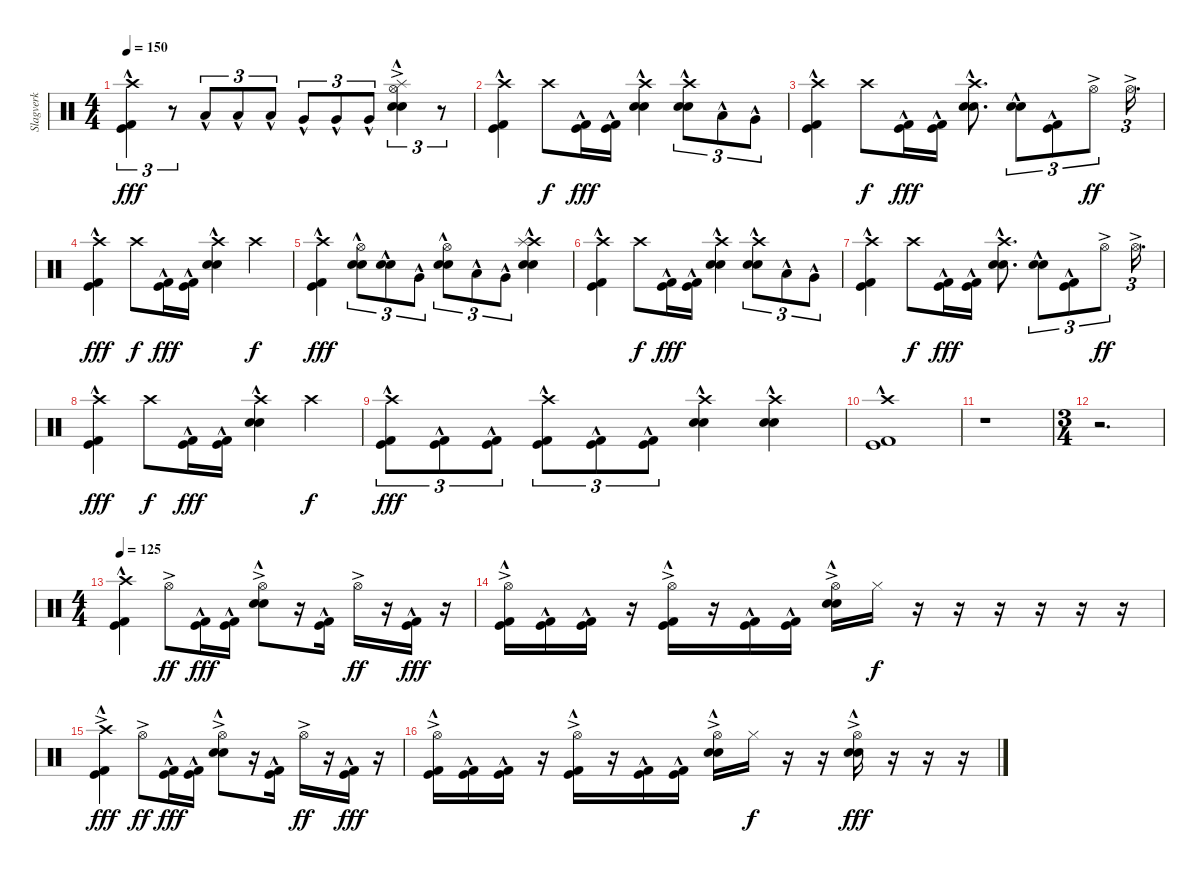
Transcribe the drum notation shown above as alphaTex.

\track ("Slagverk" "Slagverk") {instrument percussion}
\staff {score}
\articulation defaults
\ts (4 4)
\tempo 150
\clef neutral
\ks c
("Crash high (hit)" "Kick (hit)"{hac} "Kick (hit) 2"{hac}).4{tu (3 2) dy fff} r.8{tu (3 2)} "Low Tom (hit)"{hac}.8{tu (3 2)} "Low Tom (hit)"{hac}.8{tu (3 2)} "Low Tom (hit)"{hac}.8{tu (3 2)} "Very Low Tom (hit)"{hac}.8{tu (3 2)} "Very Low Tom (hit)"{hac}.8{tu (3 2)} "Very Low Tom (hit)"{hac}.8{tu (3 2)} ("Hi-Hat (open)"{ac} "Splash (hit)"{ac} "Electric Snare (hit)"{hac} "Snare (hit) 2").4{tu (3 2)} r.8{tu (3 2)} |
("Crash high (hit)" "Kick (hit)"{hac} "Kick (hit) 2"{hac}).4 "Crash high (hit)".8{dy f} ("Kick (hit)"{hac} "Kick (hit) 2"{hac}).16{dy fff} ("Kick (hit)"{hac} "Kick (hit) 2"{hac}).16 ("Crash high (hit)" "Electric Snare (hit)"{hac} "Snare (hit) 2").4 ("Crash high (hit)" "Electric Snare (hit)"{hac} "Snare (hit) 2").8{tu (3 2)} "Low Tom (hit)"{hac}.8{tu (3 2)} "Very Low Tom (hit)"{hac}.8{tu (3 2)} |
("Crash high (hit)" "Kick (hit)"{hac} "Kick (hit) 2"{hac}).4 "Crash high (hit)".8{dy f} ("Kick (hit)"{hac} "Kick (hit) 2"{hac}).16{dy fff} ("Kick (hit)"{hac} "Kick (hit) 2"{hac}).16 ("Crash high (hit)" "Electric Snare (hit)"{hac} "Snare (hit) 2").8{d} ("Electric Snare (hit)"{hac} "Snare (hit) 2").8{tu (3 2)} ("Kick (hit)"{hac} "Kick (hit) 2"{hac}).8{tu (3 2)} "Hi-Hat (open)"{ac}.8{tu (3 2) dy ff} "Hi-Hat (open)"{ac}.16{d tu (3 2)} |
("Crash high (hit)" "Kick (hit)"{hac} "Kick (hit) 2"{hac}).4{dy fff} "Crash high (hit)".8{dy f} ("Kick (hit)"{hac} "Kick (hit) 2"{hac}).16{dy fff} ("Kick (hit)"{hac} "Kick (hit) 2"{hac}).16 ("Crash high (hit)" "Electric Snare (hit)"{hac} "Snare (hit) 2").4 "Crash high (hit)".4{dy f} |
("Crash high (hit)" "Kick (hit)"{hac} "Kick (hit) 2"{hac}).4{dy fff} ("Hi-Hat (open)" "Electric Snare (hit)"{hac} "Snare (hit) 2").8{tu (3 2)} ("Electric Snare (hit)"{hac} "Snare (hit) 2").8{tu (3 2)} "Very Low Tom (hit)"{hac}.8{tu (3 2)} ("Hi-Hat (open)" "Electric Snare (hit)"{hac} "Snare (hit) 2").8{tu (3 2)} "Low Tom (hit)"{hac}.8{tu (3 2)} "Very Low Tom (hit)"{hac}.8{tu (3 2)} ("Crash high (hit)" "Splash (hit)"{hac} "Electric Snare (hit)"{hac} "Snare (hit) 2").4 |
("Crash high (hit)" "Kick (hit)"{hac} "Kick (hit) 2"{hac}).4 "Crash high (hit)".8{dy f} ("Kick (hit)"{hac} "Kick (hit) 2"{hac}).16{dy fff} ("Kick (hit)"{hac} "Kick (hit) 2"{hac}).16 ("Crash high (hit)" "Electric Snare (hit)"{hac} "Snare (hit) 2").4 ("Crash high (hit)" "Electric Snare (hit)"{hac} "Snare (hit) 2").8{tu (3 2)} "Low Tom (hit)"{hac}.8{tu (3 2)} "Very Low Tom (hit)"{hac}.8{tu (3 2)} |
("Crash high (hit)" "Kick (hit)"{hac} "Kick (hit) 2"{hac}).4 "Crash high (hit)".8{dy f} ("Kick (hit)"{hac} "Kick (hit) 2"{hac}).16{dy fff} ("Kick (hit)"{hac} "Kick (hit) 2"{hac}).16 ("Crash high (hit)" "Electric Snare (hit)"{hac} "Snare (hit) 2").8{d} ("Electric Snare (hit)"{hac} "Snare (hit) 2").8{tu (3 2)} ("Kick (hit)"{hac} "Kick (hit) 2"{hac}).8{tu (3 2)} "Hi-Hat (open)"{ac}.8{tu (3 2) dy ff} "Hi-Hat (open)"{ac}.16{d tu (3 2)} |
("Crash high (hit)" "Kick (hit)"{hac} "Kick (hit) 2"{hac}).4{dy fff} "Crash high (hit)".8{dy f} ("Kick (hit)"{hac} "Kick (hit) 2"{hac}).16{dy fff} ("Kick (hit)"{hac} "Kick (hit) 2"{hac}).16 ("Crash high (hit)" "Electric Snare (hit)"{hac} "Snare (hit) 2").4 "Crash high (hit)".4{dy f} |
("Crash high (hit)" "Kick (hit)"{hac} "Kick (hit) 2"{hac}).8{tu (3 2) dy fff} ("Kick (hit)"{hac} "Kick (hit) 2"{hac}).8{tu (3 2)} ("Kick (hit)"{hac} "Kick (hit) 2"{hac}).8{tu (3 2)} ("Crash high (hit)" "Kick (hit)"{hac} "Kick (hit) 2"{hac}).8{tu (3 2)} ("Kick (hit)"{hac} "Kick (hit) 2"{hac}).8{tu (3 2)} ("Kick (hit)"{hac} "Kick (hit) 2"{hac}).8{tu (3 2)} ("Crash high (hit)" "Electric Snare (hit)"{hac} "Snare (hit) 2").4 ("Crash high (hit)" "Electric Snare (hit)"{hac} "Snare (hit) 2").4 |
("Crash high (hit)" "Kick (hit)"{hac} "Kick (hit) 2"{hac}).1 |
r.1 |
\ts (3 4)
r.2{d} |
\ts (4 4)
\tempo 125
("Crash high (hit)" "Kick (hit)"{hac} "Kick (hit) 2"{hac}).4 "Hi-Hat (open)"{ac}.8{dy ff} ("Kick (hit)"{hac} "Kick (hit) 2"{hac}).16{dy fff} ("Kick (hit)"{hac} "Kick (hit) 2"{hac}).16 ("Hi-Hat (open)"{ac} "Electric Snare (hit)"{hac} "Snare (hit) 2").8 r.16 ("Kick (hit)"{hac} "Kick (hit) 2"{hac}).16 "Hi-Hat (open)"{ac}.16{dy ff} r.16 ("Kick (hit)"{hac} "Kick (hit) 2"{hac}).16{dy fff} r.16 |
("Hi-Hat (open)"{ac} "Kick (hit)"{hac} "Kick (hit) 2"{hac}).16 ("Kick (hit)"{hac} "Kick (hit) 2"{hac}).16 ("Kick (hit)"{hac} "Kick (hit) 2"{hac}).16 r.16 ("Hi-Hat (open)"{ac} "Kick (hit)"{hac} "Kick (hit) 2"{hac}).16 r.16 ("Kick (hit)"{hac} "Kick (hit) 2"{hac}).16 ("Kick (hit)"{hac} "Kick (hit) 2"{hac}).16 ("Hi-Hat (open)"{ac} "Electric Snare (hit)"{hac} "Snare (hit) 2").16 "Hi-Hat (closed)".16{dy f} r.16 r.16 r.16 r.16 r.16 r.16 |
("Crash high (hit)"{ac} "Kick (hit)"{hac} "Kick (hit) 2"{hac}).4{dy fff} "Hi-Hat (open)"{ac}.8{dy ff} ("Kick (hit)"{hac} "Kick (hit) 2"{hac}).16{dy fff} ("Kick (hit)"{hac} "Kick (hit) 2"{hac}).16 ("Hi-Hat (open)"{ac} "Electric Snare (hit)"{hac} "Snare (hit) 2").8 r.16 ("Kick (hit)"{hac} "Kick (hit) 2"{hac}).16 "Hi-Hat (open)"{ac}.16{dy ff} r.16 ("Kick (hit)"{hac} "Kick (hit) 2"{hac}).16{dy fff} r.16 |
("Hi-Hat (open)"{ac} "Kick (hit)"{hac} "Kick (hit) 2"{hac}).16 ("Kick (hit)"{hac} "Kick (hit) 2"{hac}).16 ("Kick (hit)"{hac} "Kick (hit) 2"{hac}).16 r.16 ("Hi-Hat (open)"{ac} "Kick (hit)"{hac} "Kick (hit) 2"{hac}).16 r.16 ("Kick (hit)"{hac} "Kick (hit) 2"{hac}).16 ("Kick (hit)"{hac} "Kick (hit) 2"{hac}).16 ("Hi-Hat (open)"{ac} "Electric Snare (hit)"{hac} "Snare (hit) 2").16 "Hi-Hat (closed)".16{dy f} r.16 r.16 ("Hi-Hat (open)"{ac} "Electric Snare (hit)"{hac} "Snare (hit) 2").16{dy fff} r.16 r.16 r.16
